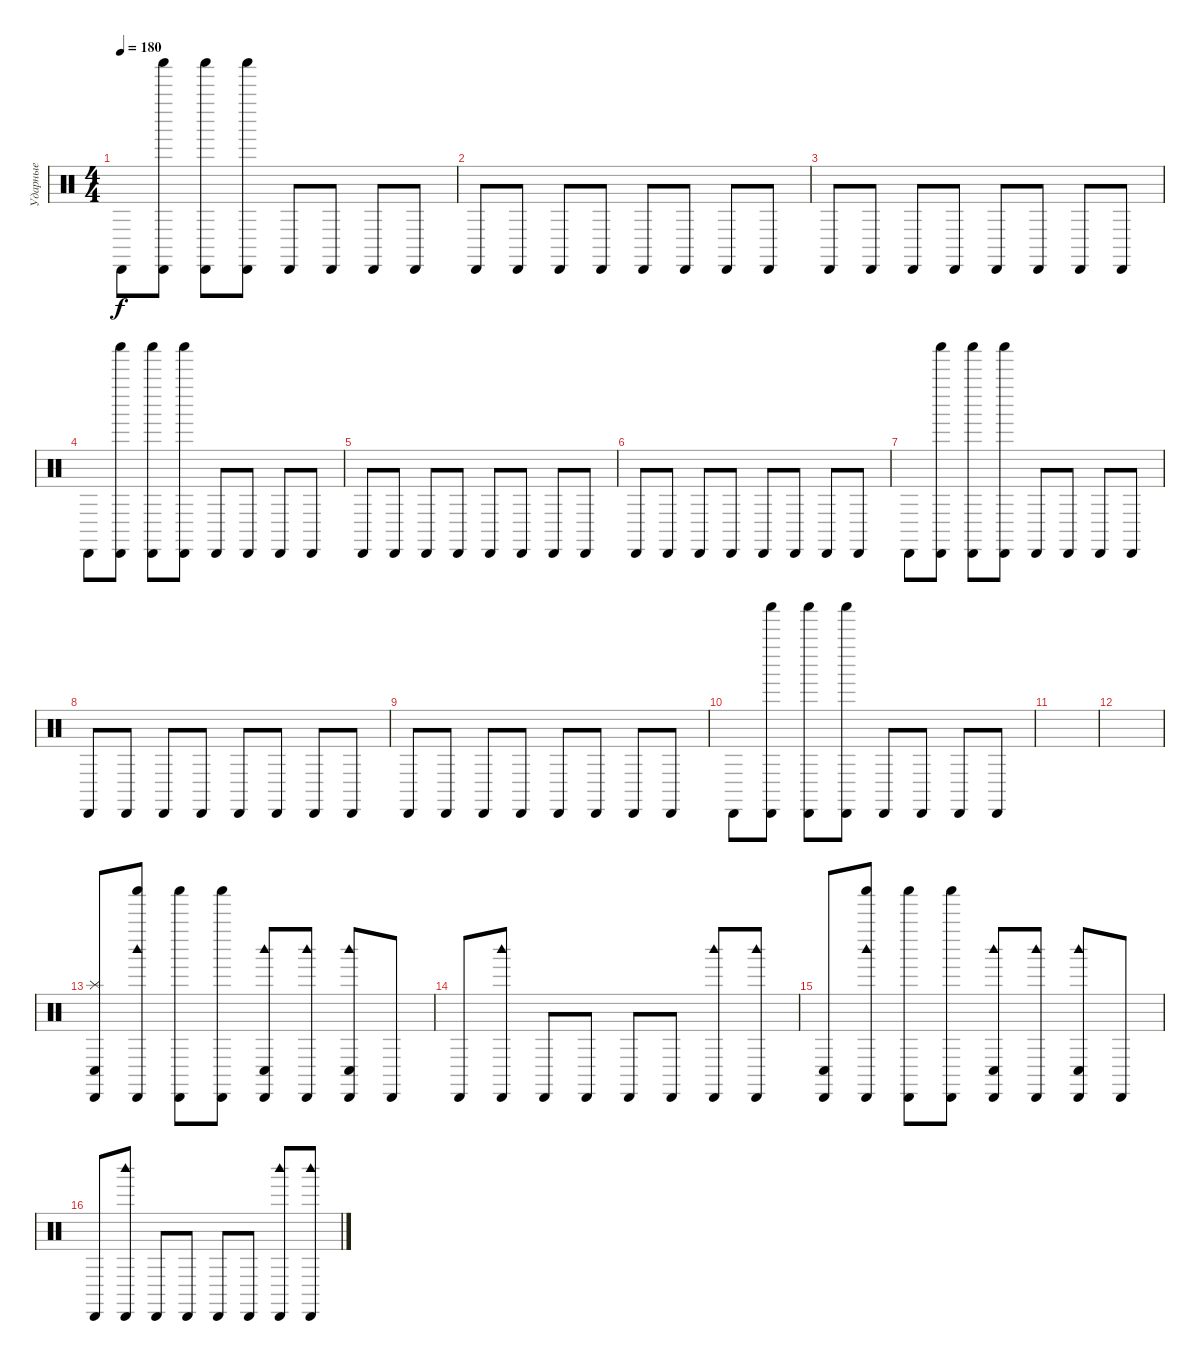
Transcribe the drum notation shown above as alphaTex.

\track ("Ударные" "Ударные") {instrument percussion}
\staff {score}
\articulation defaults
\ts (4 4)
\tempo 180
\clef neutral
\ks c "Cabasa (hit)".8{dy f}
("Shaker (hit)" "Cabasa (hit)").8 ("Shaker (hit)" "Cabasa (hit)").8 ("Shaker (hit)" "Cabasa (hit)").8 "Cabasa (hit)".8 "Cabasa (hit)".8 "Cabasa (hit)".8 "Cabasa (hit)".8 |
"Cabasa (hit)".8 "Cabasa (hit)".8 "Cabasa (hit)".8 "Cabasa (hit)".8 "Cabasa (hit)".8 "Cabasa (hit)".8 "Cabasa (hit)".8 "Cabasa (hit)".8 |
"Cabasa (hit)".8 "Cabasa (hit)".8 "Cabasa (hit)".8 "Cabasa (hit)".8 "Cabasa (hit)".8 "Cabasa (hit)".8 "Cabasa (hit)".8 "Cabasa (hit)".8 |
"Cabasa (hit)".8 ("Shaker (hit)" "Cabasa (hit)").8 ("Shaker (hit)" "Cabasa (hit)").8 ("Shaker (hit)" "Cabasa (hit)").8 "Cabasa (hit)".8 "Cabasa (hit)".8 "Cabasa (hit)".8 "Cabasa (hit)".8 |
"Cabasa (hit)".8 "Cabasa (hit)".8 "Cabasa (hit)".8 "Cabasa (hit)".8 "Cabasa (hit)".8 "Cabasa (hit)".8 "Cabasa (hit)".8 "Cabasa (hit)".8 |
"Cabasa (hit)".8 "Cabasa (hit)".8 "Cabasa (hit)".8 "Cabasa (hit)".8 "Cabasa (hit)".8 "Cabasa (hit)".8 "Cabasa (hit)".8 "Cabasa (hit)".8 |
"Cabasa (hit)".8 ("Shaker (hit)" "Cabasa (hit)").8 ("Shaker (hit)" "Cabasa (hit)").8 ("Shaker (hit)" "Cabasa (hit)").8 "Cabasa (hit)".8 "Cabasa (hit)".8 "Cabasa (hit)".8 "Cabasa (hit)".8 |
"Cabasa (hit)".8 "Cabasa (hit)".8 "Cabasa (hit)".8 "Cabasa (hit)".8 "Cabasa (hit)".8 "Cabasa (hit)".8 "Cabasa (hit)".8 "Cabasa (hit)".8 |
"Cabasa (hit)".8 "Cabasa (hit)".8 "Cabasa (hit)".8 "Cabasa (hit)".8 "Cabasa (hit)".8 "Cabasa (hit)".8 "Cabasa (hit)".8 "Cabasa (hit)".8 |
"Cabasa (hit)".8 ("Shaker (hit)" "Cabasa (hit)").8 ("Shaker (hit)" "Cabasa (hit)").8 ("Shaker (hit)" "Cabasa (hit)").8 "Cabasa (hit)".8 "Cabasa (hit)".8 "Cabasa (hit)".8 "Cabasa (hit)".8 |
|
|
("Cabasa (hit)" "Splash (hit)" "Conga low (hit)").8 ("Woodblock high (hit)" "Shaker (hit)" "Cabasa (hit)").8 ("Shaker (hit)" "Cabasa (hit)").8 ("Shaker (hit)" "Cabasa (hit)").8 ("Woodblock high (hit)" "Cabasa (hit)" "Conga low (hit)").8 ("Woodblock high (hit)" "Cabasa (hit)").8 ("Woodblock high (hit)" "Cabasa (hit)" "Conga low (hit)").8 "Cabasa (hit)".8 |
"Cabasa (hit)".8 ("Woodblock high (hit)" "Cabasa (hit)").8 "Cabasa (hit)".8 "Cabasa (hit)".8 "Cabasa (hit)".8 "Cabasa (hit)".8 ("Woodblock high (hit)" "Cabasa (hit)").8 ("Woodblock high (hit)" "Cabasa (hit)").8 |
("Cabasa (hit)" "Conga low (hit)").8 ("Woodblock high (hit)" "Shaker (hit)" "Cabasa (hit)").8 ("Shaker (hit)" "Cabasa (hit)").8 ("Shaker (hit)" "Cabasa (hit)").8 ("Woodblock high (hit)" "Cabasa (hit)" "Conga low (hit)").8 ("Woodblock high (hit)" "Cabasa (hit)").8 ("Woodblock high (hit)" "Cabasa (hit)" "Conga low (hit)").8 "Cabasa (hit)".8 |
"Cabasa (hit)".8 ("Woodblock high (hit)" "Cabasa (hit)").8 "Cabasa (hit)".8 "Cabasa (hit)".8 "Cabasa (hit)".8 "Cabasa (hit)".8 ("Woodblock high (hit)" "Cabasa (hit)").8 ("Woodblock high (hit)" "Cabasa (hit)").8
